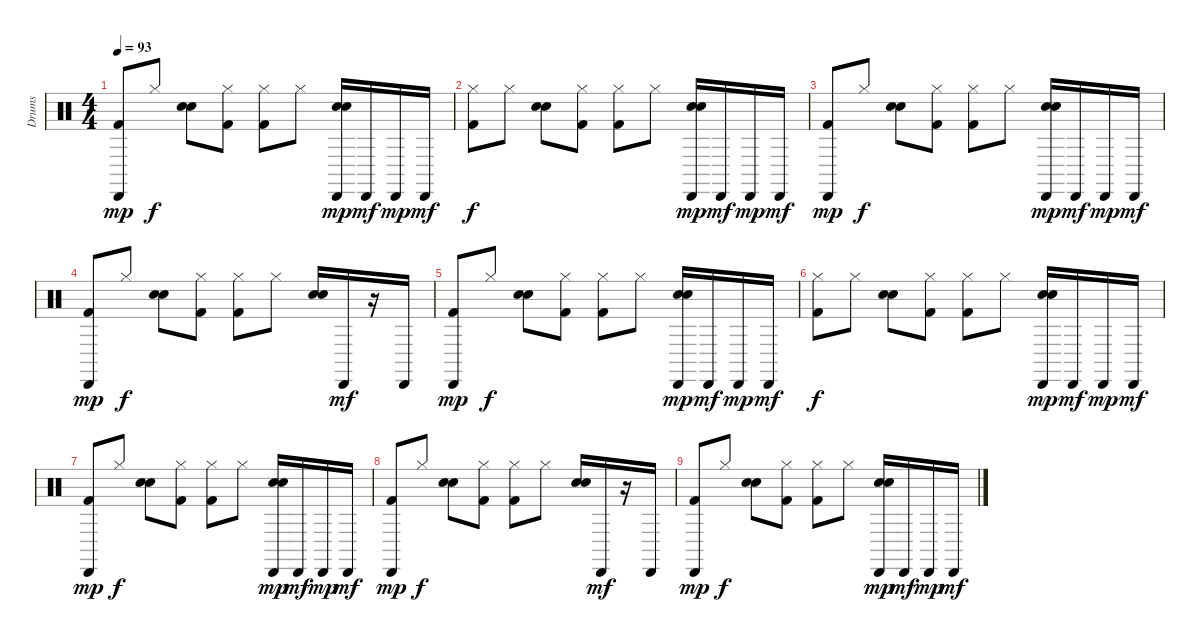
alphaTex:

\track ("Drums" "Drums") {instrument percussion}
\staff {score}
\articulation defaults
\ts (4 4)
\tempo 93
\clef neutral
\ks c
("Cabasa (hit)" "Kick (hit) 2").8{dy mp} "Hi-Hat (closed)".8{dy f} ("Hand Clap (hit)" "Snare (hit) 2").8 ("Kick (hit) 2" "Hi-Hat (closed)").8 ("Hi-Hat (closed)" "Kick (hit) 2").8 "Hi-Hat (closed)".8 ("Snare (hit) 2" "Hand Clap (hit)" "Cabasa (hit)").16{dy mp} "Cabasa (hit)".16{dy mf} "Cabasa (hit)".16{dy mp} "Cabasa (hit)".16{dy mf} |
("Hi-Hat (closed)" "Kick (hit) 2").8{dy f} "Hi-Hat (closed)".8 ("Snare (hit) 2" "Hand Clap (hit)").8 ("Kick (hit) 2" "Hi-Hat (closed)").8 ("Kick (hit) 2" "Hi-Hat (closed)").8 "Hi-Hat (closed)".8 ("Cabasa (hit)" "Snare (hit) 2" "Hand Clap (hit)").16{dy mp} "Cabasa (hit)".16{dy mf} "Cabasa (hit)".16{dy mp} "Cabasa (hit)".16{dy mf} |
("Cabasa (hit)" "Kick (hit) 2").8{dy mp} "Hi-Hat (closed)".8{dy f} ("Snare (hit) 2" "Hand Clap (hit)").8 ("Hi-Hat (closed)" "Kick (hit) 2").8 ("Hi-Hat (closed)" "Kick (hit) 2").8 "Hi-Hat (closed)".8 ("Snare (hit) 2" "Cabasa (hit)" "Hand Clap (hit)").16{dy mp} "Cabasa (hit)".16{dy mf} "Cabasa (hit)".16{dy mp} "Cabasa (hit)".16{dy mf} |
("Cabasa (hit)" "Kick (hit) 2").8{dy mp} "Hi-Hat (closed)".8{dy f} ("Snare (hit) 2" "Hand Clap (hit)").8 ("Kick (hit) 2" "Hi-Hat (closed)").8 ("Kick (hit) 2" "Hi-Hat (closed)").8 "Hi-Hat (closed)".8 ("Hand Clap (hit)" "Snare (hit) 2").16 "Cabasa (hit)".16{dy mf} r.16 "Cabasa (hit)".16 |
("Cabasa (hit)" "Kick (hit) 2").8{dy mp} "Hi-Hat (closed)".8{dy f} ("Hand Clap (hit)" "Snare (hit) 2").8 ("Kick (hit) 2" "Hi-Hat (closed)").8 ("Kick (hit) 2" "Hi-Hat (closed)").8 "Hi-Hat (closed)".8 ("Hand Clap (hit)" "Snare (hit) 2" "Cabasa (hit)").16{dy mp} "Cabasa (hit)".16{dy mf} "Cabasa (hit)".16{dy mp} "Cabasa (hit)".16{dy mf} |
("Kick (hit) 2" "Hi-Hat (closed)").8{dy f} "Hi-Hat (closed)".8 ("Snare (hit) 2" "Hand Clap (hit)").8 ("Hi-Hat (closed)" "Kick (hit) 2").8 ("Hi-Hat (closed)" "Kick (hit) 2").8 "Hi-Hat (closed)".8 ("Cabasa (hit)" "Snare (hit) 2" "Hand Clap (hit)").16{dy mp} "Cabasa (hit)".16{dy mf} "Cabasa (hit)".16{dy mp} "Cabasa (hit)".16{dy mf} |
("Cabasa (hit)" "Kick (hit) 2").8{dy mp} "Hi-Hat (closed)".8{dy f} ("Hand Clap (hit)" "Snare (hit) 2").8 ("Kick (hit) 2" "Hi-Hat (closed)").8 ("Hi-Hat (closed)" "Kick (hit) 2").8 "Hi-Hat (closed)".8 ("Cabasa (hit)" "Snare (hit) 2" "Hand Clap (hit)").16{dy mp} "Cabasa (hit)".16{dy mf} "Cabasa (hit)".16{dy mp} "Cabasa (hit)".16{dy mf} |
("Kick (hit) 2" "Cabasa (hit)").8{dy mp} "Hi-Hat (closed)".8{dy f} ("Snare (hit) 2" "Hand Clap (hit)").8 ("Hi-Hat (closed)" "Kick (hit) 2").8 ("Kick (hit) 2" "Hi-Hat (closed)").8 "Hi-Hat (closed)".8 ("Hand Clap (hit)" "Snare (hit) 2").16 "Cabasa (hit)".16{dy mf} r.16 "Cabasa (hit)".16 |
("Cabasa (hit)" "Kick (hit) 2").8{dy mp} "Hi-Hat (closed)".8{dy f} ("Snare (hit) 2" "Hand Clap (hit)").8 ("Hi-Hat (closed)" "Kick (hit) 2").8 ("Kick (hit) 2" "Hi-Hat (closed)").8 "Hi-Hat (closed)".8 ("Snare (hit) 2" "Hand Clap (hit)" "Cabasa (hit)").16{dy mp} "Cabasa (hit)".16{dy mf} "Cabasa (hit)".16{dy mp} "Cabasa (hit)".16{dy mf}
